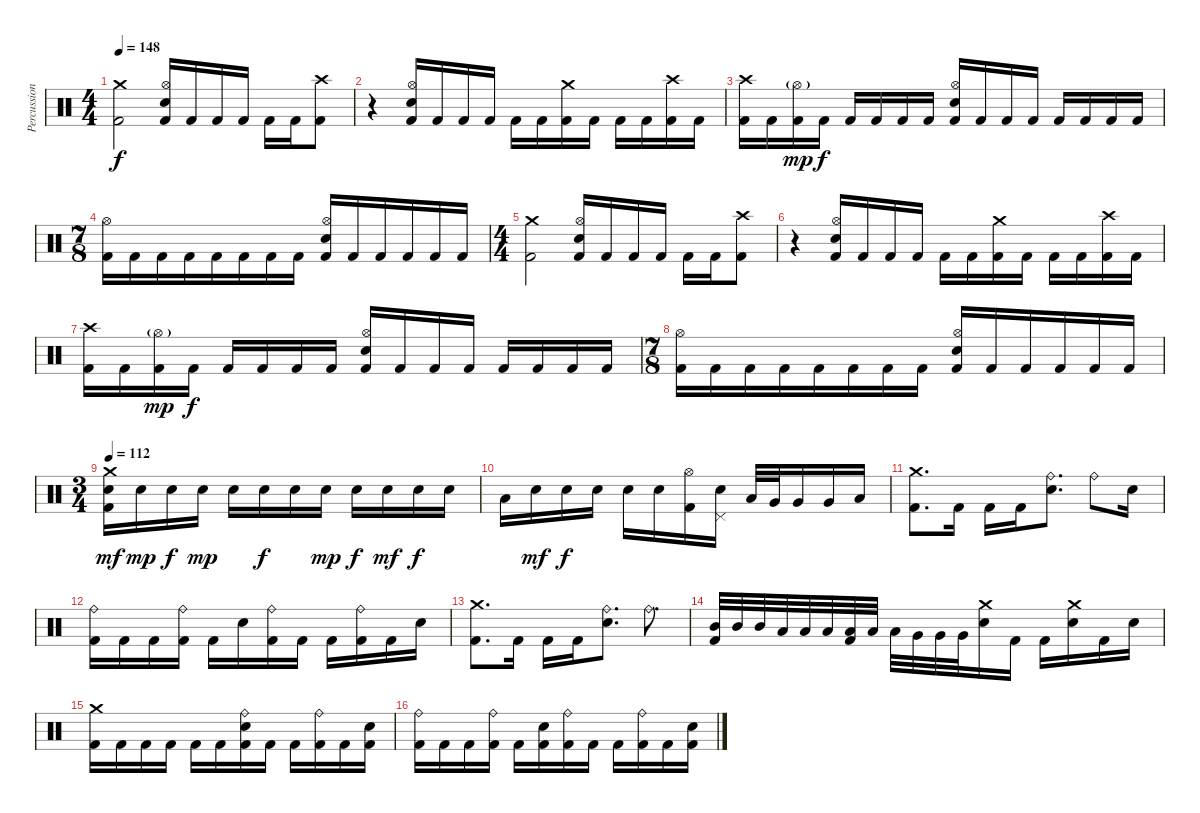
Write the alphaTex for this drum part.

\track ("Percussion" "Percussion") {instrument percussion}
\staff {score}
\articulation defaults
\ts (4 4)
\tempo 148
\clef neutral
\ks c
("Crash medium (hit)" "Kick (hit) 2").2{dy f} ("Hi-Hat (open)" "Electric Snare (hit)" "Kick (hit) 2").16 "Kick (hit) 2".16 "Kick (hit) 2".16 "Kick (hit) 2".16 "Kick (hit) 2".16 "Kick (hit) 2".16 ("Crash high (hit)" "Kick (hit) 2").8 |
r.4 ("Hi-Hat (open)" "Electric Snare (hit)" "Kick (hit) 2").16 "Kick (hit) 2".16 "Kick (hit) 2".16 "Kick (hit) 2".16 "Kick (hit) 2".16 "Kick (hit) 2".16 ("Crash medium (hit)" "Kick (hit) 2").16 "Kick (hit) 2".16 "Kick (hit) 2".16 "Kick (hit) 2".16 ("Crash high (hit)" "Kick (hit) 2").16 "Kick (hit) 2".16 |
("Crash high (hit)" "Kick (hit) 2").16 "Kick (hit) 2".16 ("Hi-Hat (open)"{g} "Kick (hit) 2").16{dy mp} "Kick (hit) 2".16{dy f} "Kick (hit) 2".16 "Kick (hit) 2".16 "Kick (hit) 2".16 "Kick (hit) 2".16 ("Hi-Hat (open)" "Electric Snare (hit)" "Kick (hit) 2").16 "Kick (hit) 2".16 "Kick (hit) 2".16 "Kick (hit) 2".16 "Kick (hit) 2".16 "Kick (hit) 2".16 "Kick (hit) 2".16 "Kick (hit) 2".16 |
\ts (7 8)
("Hi-Hat (open)" "Kick (hit) 2").16 "Kick (hit) 2".16 "Kick (hit) 2".16 "Kick (hit) 2".16 "Kick (hit) 2".16 "Kick (hit) 2".16 "Kick (hit) 2".16 "Kick (hit) 2".16 ("Hi-Hat (open)" "Electric Snare (hit)" "Kick (hit) 2").16 "Kick (hit) 2".16 "Kick (hit) 2".16 "Kick (hit) 2".16 "Kick (hit) 2".16 "Kick (hit) 2".16 |
\ts (4 4)
("Crash medium (hit)" "Kick (hit) 2").2 ("Hi-Hat (open)" "Electric Snare (hit)" "Kick (hit) 2").16 "Kick (hit) 2".16 "Kick (hit) 2".16 "Kick (hit) 2".16 "Kick (hit) 2".16 "Kick (hit) 2".16 ("Crash high (hit)" "Kick (hit) 2").8 |
r.4 ("Hi-Hat (open)" "Electric Snare (hit)" "Kick (hit) 2").16 "Kick (hit) 2".16 "Kick (hit) 2".16 "Kick (hit) 2".16 "Kick (hit) 2".16 "Kick (hit) 2".16 ("Crash medium (hit)" "Kick (hit) 2").16 "Kick (hit) 2".16 "Kick (hit) 2".16 "Kick (hit) 2".16 ("Crash high (hit)" "Kick (hit) 2").16 "Kick (hit) 2".16 |
("Crash high (hit)" "Kick (hit) 2").16 "Kick (hit) 2".16 ("Hi-Hat (open)"{g} "Kick (hit) 2").16{dy mp} "Kick (hit) 2".16{dy f} "Kick (hit) 2".16 "Kick (hit) 2".16 "Kick (hit) 2".16 "Kick (hit) 2".16 ("Hi-Hat (open)" "Electric Snare (hit)" "Kick (hit) 2").16 "Kick (hit) 2".16 "Kick (hit) 2".16 "Kick (hit) 2".16 "Kick (hit) 2".16 "Kick (hit) 2".16 "Kick (hit) 2".16 "Kick (hit) 2".16 |
\ts (7 8)
("Hi-Hat (open)" "Kick (hit) 2").16 "Kick (hit) 2".16 "Kick (hit) 2".16 "Kick (hit) 2".16 "Kick (hit) 2".16 "Kick (hit) 2".16 "Kick (hit) 2".16 "Kick (hit) 2".16 ("Hi-Hat (open)" "Electric Snare (hit)" "Kick (hit) 2").16 "Kick (hit) 2".16 "Kick (hit) 2".16 "Kick (hit) 2".16 "Kick (hit) 2".16 "Kick (hit) 2".16 |
\ts (3 4)
\tempo 112
("Crash medium (hit)" "Electric Snare (hit)" "Kick (hit) 2").16{dy mf} "Electric Snare (hit)".16{dy mp} "Electric Snare (hit)".16{dy f} "Electric Snare (hit)".16{dy mp} "Electric Snare (hit)".16 "Electric Snare (hit)".16{dy f} "Electric Snare (hit)".16 "Electric Snare (hit)".16{dy mp} "Electric Snare (hit)".16{dy f} "Electric Snare (hit)".16{dy mf} "Electric Snare (hit)".16{dy f} "Electric Snare (hit)".16 |
"Low Tom (hit)".16 "Electric Snare (hit)".16{dy mf} "Electric Snare (hit)".16{dy f} "Electric Snare (hit)".16 "Electric Snare (hit)".16 "Electric Snare (hit)".16 ("Hi-Hat (open)" "Kick (hit) 2").16 ("Pedal Hi-Hat (hit)" "Electric Snare (hit)").16 "Low Tom (hit)".32 "Very Low Tom (hit)".32 "Very Low Tom (hit)".16 "Very Low Tom (hit)".16 "Low Floor Tom (hit)".16 |
("Crash medium (hit)" "Kick (hit) 2").8{d} "Kick (hit) 2".16 "Kick (hit) 2".16 "Kick (hit) 2".16 ("Ride (bell)" "Electric Snare (hit)").8{d} "Ride (bell)".8 "Electric Snare (hit)".16 |
("Ride (bell)" "Kick (hit) 2").16 "Kick (hit) 2".16 "Kick (hit) 2".16 ("Ride (bell)" "Kick (hit) 2").16 "Kick (hit) 2".16 "Electric Snare (hit)".16 ("Ride (bell)" "Kick (hit) 2").16 "Kick (hit) 2".16 "Kick (hit) 2".16 ("Ride (bell)" "Kick (hit) 2").16 "Kick (hit) 2".16 "Electric Snare (hit)".16 |
("Crash medium (hit)" "Kick (hit) 2").8{d} "Kick (hit) 2".16 "Kick (hit) 2".16 "Kick (hit) 2".16 ("Ride (bell)" "Electric Snare (hit)").8{d} "Ride (bell)".8{d} |
("Mid Tom (hit)" "Kick (hit) 2").32 "Mid Tom (hit)".32 "Mid Tom (hit)".32 "Low Tom (hit)".32 "Low Tom (hit)".32 "Low Tom (hit)".32 ("Low Tom (hit)" "Kick (hit) 2").32 "Low Tom (hit)".32 "Low Tom (hit)".32 "Very Low Tom (hit)".32 "Very Low Tom (hit)".32 "Very Low Tom (hit)".32 ("Crash medium (hit)" "Electric Snare (hit)").16 "Kick (hit) 2".16 "Kick (hit) 2".16 ("Crash medium (hit)" "Electric Snare (hit)").16 "Kick (hit) 2".16 "Electric Snare (hit)".16 |
("Crash medium (hit)" "Kick (hit) 2").16 "Kick (hit) 2".16 "Kick (hit) 2".16 "Kick (hit) 2".16 "Kick (hit) 2".16 "Kick (hit) 2".16 ("Ride (bell)" "Electric Snare (hit)" "Kick (hit) 2").16 "Kick (hit) 2".16 "Kick (hit) 2".16 ("Ride (bell)" "Kick (hit) 2").16 "Kick (hit) 2".16 ("Electric Snare (hit)" "Kick (hit) 2").16 |
("Ride (bell)" "Kick (hit) 2").16 "Kick (hit) 2".16 "Kick (hit) 2".16 ("Ride (bell)" "Kick (hit) 2").16 "Kick (hit) 2".16 ("Electric Snare (hit)" "Kick (hit) 2").16 ("Ride (bell)" "Kick (hit) 2").16 "Kick (hit) 2".16 "Kick (hit) 2".16 ("Ride (bell)" "Kick (hit) 2").16 "Kick (hit) 2".16 ("Electric Snare (hit)" "Kick (hit) 2").16
